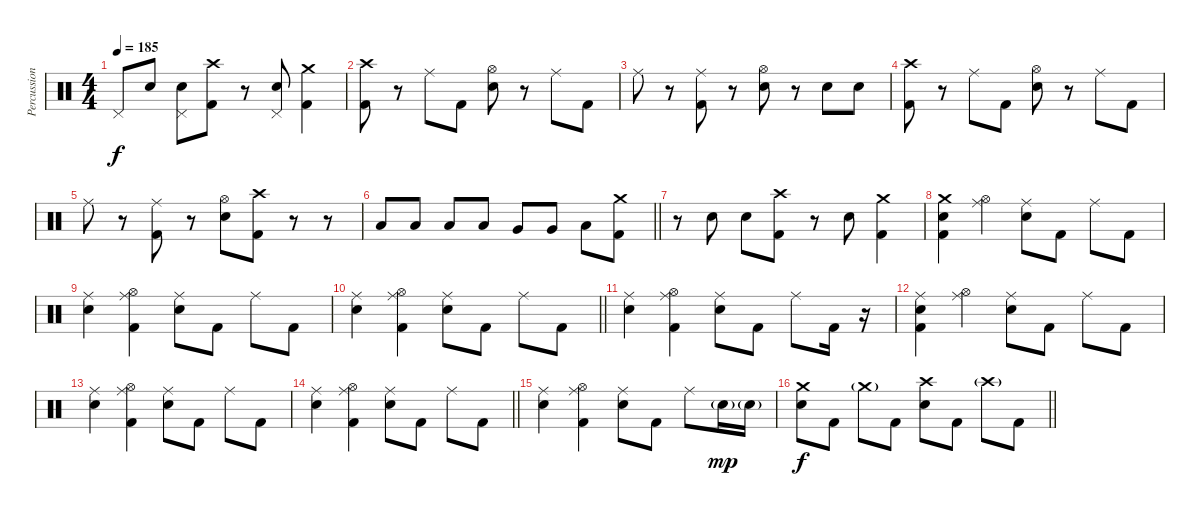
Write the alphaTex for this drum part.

\track ("Percussion" "Percussion") {instrument percussion}
\staff {score}
\articulation defaults
\ts (4 4)
\tempo 185
\clef neutral
\ks c "Pedal Hi-Hat (hit)".8{dy f} "Electric Snare (hit)".8
("Pedal Hi-Hat (hit)" "Electric Snare (hit)").8 ("Crash high (hit)" "Kick (hit) 2").8 r.8 ("Pedal Hi-Hat (hit)" "Electric Snare (hit)").8 ("Crash medium (hit)" "Kick (hit) 2").4 |
("Crash high (hit)" "Kick (hit) 2").8 r.8 "Ride (middle)".8 "Kick (hit) 2".8 ("Hi-Hat (open)" "Electric Snare (hit)").8 r.8 "Ride (middle)".8 "Kick (hit) 2".8 |
"Ride (middle)".8 r.8 ("Ride (middle)" "Kick (hit) 2").8 r.8 ("Hi-Hat (open)" "Electric Snare (hit)").8 r.8 "Electric Snare (hit)".8 "Electric Snare (hit)".8 |
("Crash high (hit)" "Kick (hit) 2").8 r.8 "Ride (middle)".8 "Kick (hit) 2".8 ("Hi-Hat (open)" "Electric Snare (hit)").8 r.8 "Ride (middle)".8 "Kick (hit) 2".8 |
"Ride (middle)".8 r.8 ("Ride (middle)" "Kick (hit) 2").8 r.8 ("Hi-Hat (open)" "Electric Snare (hit)").8 ("Crash high (hit)" "Kick (hit) 2").8 r.8 r.8 |
\barLineRight lightlight "Low Tom (hit)".8 "Low Tom (hit)".8 "Low Tom (hit)".8 "Low Tom (hit)".8 "Very Low Tom (hit)".8 "Very Low Tom (hit)".8 "Low Floor Tom (hit)".8
("Crash medium (hit)" "Kick (hit) 2").8 |
r.8 "Electric Snare (hit)".8 "Electric Snare (hit)".8 ("Crash high (hit)" "Kick (hit) 2").8 r.8 "Electric Snare (hit)".8 ("Crash medium (hit)" "Kick (hit) 2").4 |
("Crash medium (hit)" "Electric Snare (hit)" "Kick (hit) 2").4 ("Hi-Hat (open)" "Ride (middle)").4 ("Ride (middle)" "Electric Snare (hit)").8 "Kick (hit) 2".8 "Ride (middle)".8 "Kick (hit) 2".8 |
("Ride (middle)" "Electric Snare (hit)").4 ("Hi-Hat (open)" "Ride (middle)" "Kick (hit) 2").4 ("Ride (middle)" "Electric Snare (hit)").8 "Kick (hit) 2".8 "Ride (middle)".8 "Kick (hit) 2".8 |
\barLineRight lightlight
("Ride (middle)" "Electric Snare (hit)").4 ("Hi-Hat (open)" "Ride (middle)" "Kick (hit) 2").4 ("Ride (middle)" "Electric Snare (hit)").8 "Kick (hit) 2".8 "Ride (middle)".8 "Kick (hit) 2".8 |
("Ride (middle)" "Electric Snare (hit)").4 ("Hi-Hat (open)" "Ride (middle)" "Kick (hit) 2").4 ("Ride (middle)" "Electric Snare (hit)").8 "Kick (hit) 2".8 "Ride (middle)".8 "Kick (hit) 2".16 r.16 |
("Ride (middle)" "Electric Snare (hit)" "Kick (hit) 2").4 ("Hi-Hat (open)" "Ride (middle)").4 ("Ride (middle)" "Electric Snare (hit)").8 "Kick (hit) 2".8 "Ride (middle)".8 "Kick (hit) 2".8 |
("Ride (middle)" "Electric Snare (hit)").4 ("Hi-Hat (open)" "Ride (middle)" "Kick (hit) 2").4 ("Ride (middle)" "Electric Snare (hit)").8 "Kick (hit) 2".8 "Ride (middle)".8 "Kick (hit) 2".8 |
\barLineRight lightlight
("Ride (middle)" "Electric Snare (hit)").4 ("Hi-Hat (open)" "Ride (middle)" "Kick (hit) 2").4 ("Ride (middle)" "Electric Snare (hit)").8 "Kick (hit) 2".8 "Ride (middle)".8 "Kick (hit) 2".8 |
("Ride (middle)" "Electric Snare (hit)").4 ("Hi-Hat (open)" "Ride (middle)" "Kick (hit) 2").4 ("Ride (middle)" "Electric Snare (hit)").8 "Kick (hit) 2".8 "Ride (middle)".8 "Electric Snare (hit)"{g}.16{dy mp} "Electric Snare (hit)"{g}.16 |
\barLineRight lightlight
("Crash medium (hit)" "Electric Snare (hit)").8{dy f} "Kick (hit) 2".8 "Crash medium (hit)"{g}.8 "Kick (hit) 2".8 ("Crash high (hit)" "Electric Snare (hit)").8 "Kick (hit) 2".8 "Crash high (hit)"{g}.8 "Kick (hit) 2".8
